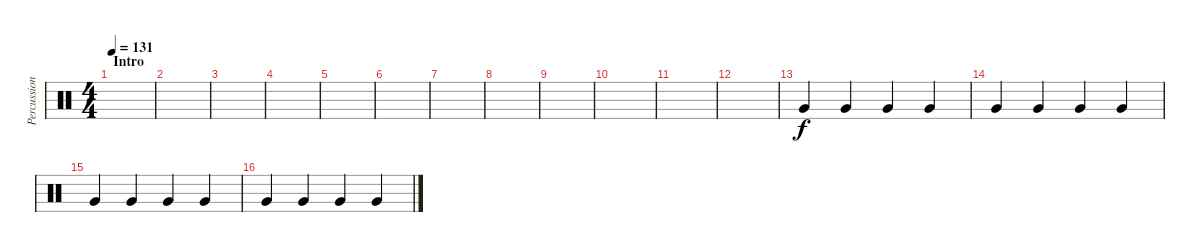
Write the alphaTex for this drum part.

\track ("Percussion" "Percussion") {instrument percussion}
\staff {score}
\articulation defaults
\ts (4 4)
\section ("" "Intro")
\tempo 131
\clef neutral
\ks c
|
|
|
|
|
|
|
|
|
|
|
|
"Very Low Tom (hit)".4 "Very Low Tom (hit)".4 "Very Low Tom (hit)".4 "Very Low Tom (hit)".4 |
"Very Low Tom (hit)".4 "Very Low Tom (hit)".4 "Very Low Tom (hit)".4 "Very Low Tom (hit)".4 |
"Very Low Tom (hit)".4 "Very Low Tom (hit)".4 "Very Low Tom (hit)".4 "Very Low Tom (hit)".4 |
"Very Low Tom (hit)".4 "Very Low Tom (hit)".4 "Very Low Tom (hit)".4 "Very Low Tom (hit)".4
